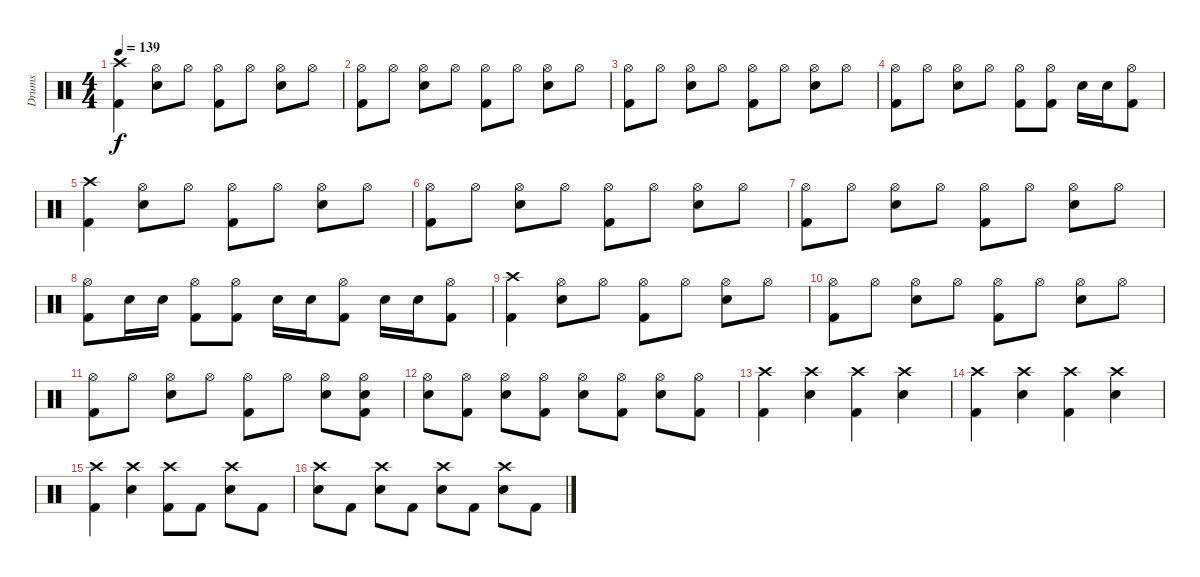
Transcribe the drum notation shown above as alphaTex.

\track ("Drums" "Drums") {instrument percussion}
\staff {score}
\articulation defaults
\ts (4 4)
\tempo 139
\clef neutral
\ks c
("Crash high (hit)" "Kick (hit) 2").4{dy f} ("Hi-Hat (open)" "Electric Snare (hit)").8 "Hi-Hat (open)".8 ("Hi-Hat (open)" "Kick (hit) 2").8 "Hi-Hat (open)".8 ("Hi-Hat (open)" "Electric Snare (hit)").8 "Hi-Hat (open)".8 |
("Hi-Hat (open)" "Kick (hit) 2").8 "Hi-Hat (open)".8 ("Hi-Hat (open)" "Electric Snare (hit)").8 "Hi-Hat (open)".8 ("Hi-Hat (open)" "Kick (hit) 2").8 "Hi-Hat (open)".8 ("Hi-Hat (open)" "Electric Snare (hit)").8 "Hi-Hat (open)".8 |
("Hi-Hat (open)" "Kick (hit) 2").8 "Hi-Hat (open)".8 ("Hi-Hat (open)" "Electric Snare (hit)").8 "Hi-Hat (open)".8 ("Hi-Hat (open)" "Kick (hit) 2").8 "Hi-Hat (open)".8 ("Hi-Hat (open)" "Electric Snare (hit)").8 "Hi-Hat (open)".8 |
("Hi-Hat (open)" "Kick (hit) 2").8 "Hi-Hat (open)".8 ("Hi-Hat (open)" "Electric Snare (hit)").8 "Hi-Hat (open)".8 ("Hi-Hat (open)" "Kick (hit) 2").8 ("Hi-Hat (open)" "Kick (hit) 2").8 "Electric Snare (hit)".16 "Electric Snare (hit)".16 ("Hi-Hat (open)" "Kick (hit) 2").8 |
("Crash high (hit)" "Kick (hit) 2").4 ("Hi-Hat (open)" "Electric Snare (hit)").8 "Hi-Hat (open)".8 ("Hi-Hat (open)" "Kick (hit) 2").8 "Hi-Hat (open)".8 ("Hi-Hat (open)" "Electric Snare (hit)").8 "Hi-Hat (open)".8 |
("Hi-Hat (open)" "Kick (hit) 2").8 "Hi-Hat (open)".8 ("Hi-Hat (open)" "Electric Snare (hit)").8 "Hi-Hat (open)".8 ("Hi-Hat (open)" "Kick (hit) 2").8 "Hi-Hat (open)".8 ("Hi-Hat (open)" "Electric Snare (hit)").8 "Hi-Hat (open)".8 |
("Hi-Hat (open)" "Kick (hit) 2").8 "Hi-Hat (open)".8 ("Hi-Hat (open)" "Electric Snare (hit)").8 "Hi-Hat (open)".8 ("Hi-Hat (open)" "Kick (hit) 2").8 "Hi-Hat (open)".8 ("Hi-Hat (open)" "Electric Snare (hit)").8 "Hi-Hat (open)".8 |
("Hi-Hat (open)" "Kick (hit) 2").8 "Electric Snare (hit)".16 "Electric Snare (hit)".16 ("Hi-Hat (open)" "Kick (hit) 2").8 ("Hi-Hat (open)" "Kick (hit) 2").8 "Electric Snare (hit)".16 "Electric Snare (hit)".16 ("Hi-Hat (open)" "Kick (hit) 2").8 "Electric Snare (hit)".16 "Electric Snare (hit)".16 ("Hi-Hat (open)" "Kick (hit) 2").8 |
("Crash high (hit)" "Kick (hit) 2").4 ("Hi-Hat (open)" "Electric Snare (hit)").8 "Hi-Hat (open)".8 ("Hi-Hat (open)" "Kick (hit) 2").8 "Hi-Hat (open)".8 ("Hi-Hat (open)" "Electric Snare (hit)").8 "Hi-Hat (open)".8 |
("Hi-Hat (open)" "Kick (hit) 2").8 "Hi-Hat (open)".8 ("Hi-Hat (open)" "Electric Snare (hit)").8 "Hi-Hat (open)".8 ("Hi-Hat (open)" "Kick (hit) 2").8 "Hi-Hat (open)".8 ("Hi-Hat (open)" "Electric Snare (hit)").8 "Hi-Hat (open)".8 |
("Hi-Hat (open)" "Kick (hit) 2").8 "Hi-Hat (open)".8 ("Hi-Hat (open)" "Electric Snare (hit)").8 "Hi-Hat (open)".8 ("Hi-Hat (open)" "Kick (hit) 2").8 "Hi-Hat (open)".8 ("Hi-Hat (open)" "Electric Snare (hit)").8 ("Hi-Hat (open)" "Electric Snare (hit)" "Kick (hit) 2").8 |
("Hi-Hat (open)" "Electric Snare (hit)").8 ("Hi-Hat (open)" "Kick (hit) 2").8 ("Hi-Hat (open)" "Electric Snare (hit)").8 ("Hi-Hat (open)" "Kick (hit) 2").8 ("Hi-Hat (open)" "Electric Snare (hit)").8 ("Hi-Hat (open)" "Kick (hit) 2").8 ("Hi-Hat (open)" "Electric Snare (hit)").8 ("Hi-Hat (open)" "Kick (hit) 2").8 |
("Crash high (hit)" "Kick (hit) 2").4 ("Crash high (hit)" "Electric Snare (hit)").4 ("Crash high (hit)" "Kick (hit) 2").4 ("Crash high (hit)" "Electric Snare (hit)").4 |
("Crash high (hit)" "Kick (hit) 2").4 ("Crash high (hit)" "Electric Snare (hit)").4 ("Crash high (hit)" "Kick (hit) 2").4 ("Crash high (hit)" "Electric Snare (hit)").4 |
("Crash high (hit)" "Kick (hit) 2").4 ("Crash high (hit)" "Electric Snare (hit)").4 ("Crash high (hit)" "Kick (hit) 2").8 "Kick (hit) 2".8 ("Crash high (hit)" "Electric Snare (hit)").8 "Kick (hit) 2".8 |
("Crash high (hit)" "Electric Snare (hit)").8 "Kick (hit) 2".8 ("Crash high (hit)" "Electric Snare (hit)").8 "Kick (hit) 2".8 ("Crash high (hit)" "Electric Snare (hit)").8 "Kick (hit) 2".8 ("Crash high (hit)" "Electric Snare (hit)").8 "Kick (hit) 2".8
